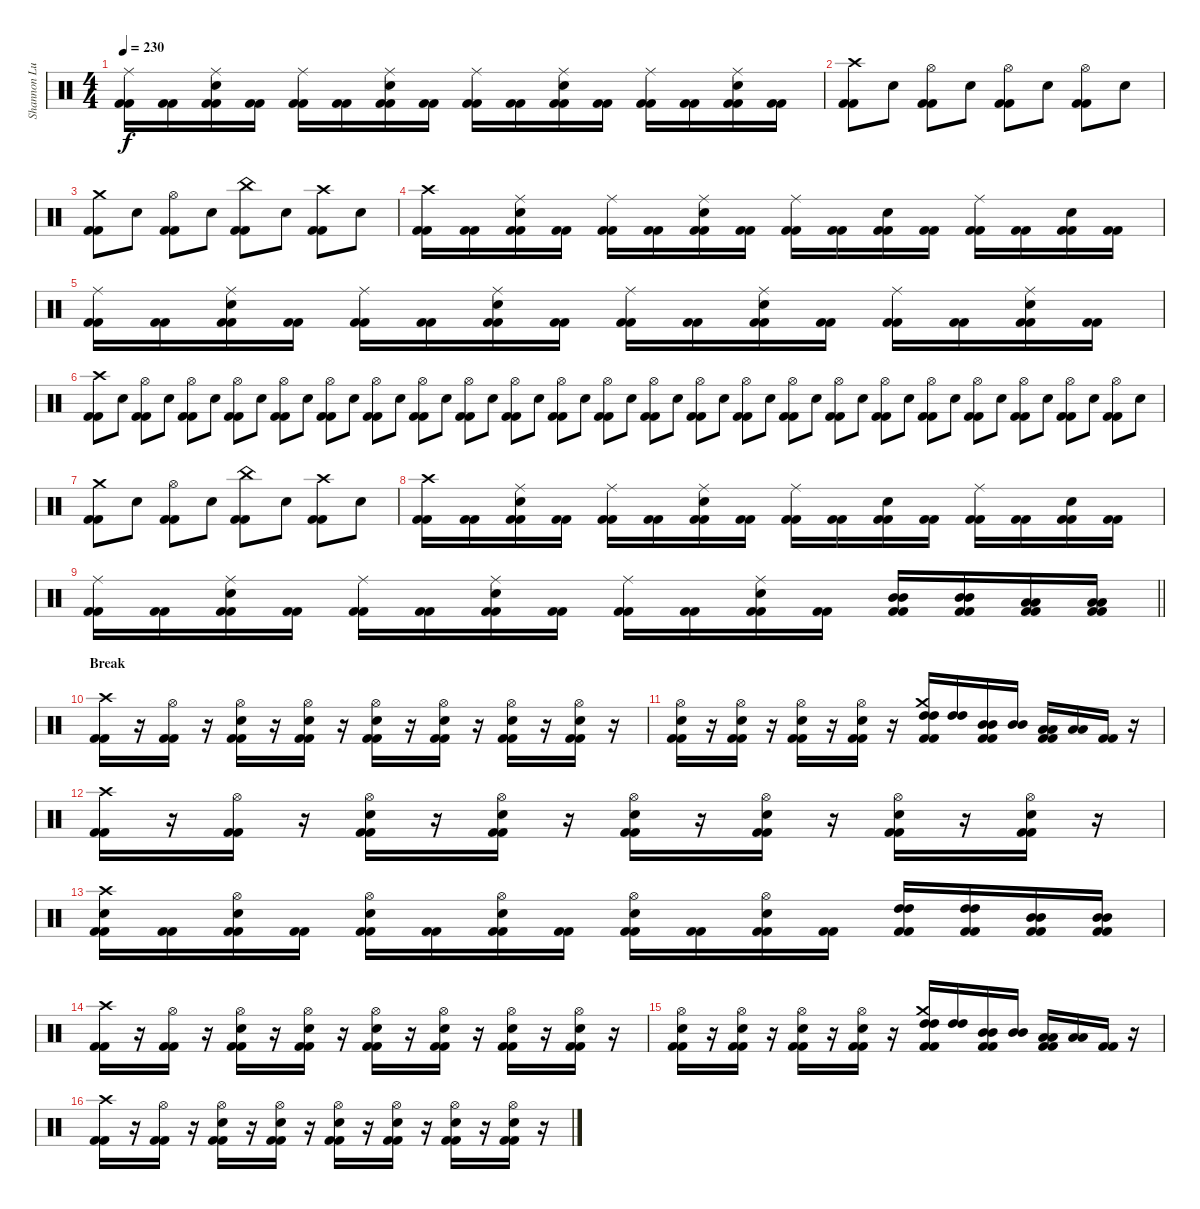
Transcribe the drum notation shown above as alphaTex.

\track ("Shannon Lucas" "Shannon Lu") {instrument percussion}
\staff {score}
\articulation defaults
\ts (4 4)
\tempo 230
\clef neutral
\ks c
("Ride (middle)" "Kick (hit) 2" "Kick (hit) 2").16{dy f} ("Kick (hit) 2" "Kick (hit) 2").16 ("Ride (middle)" "Electric Snare (hit)" "Kick (hit) 2" "Kick (hit) 2").16 ("Kick (hit) 2" "Kick (hit) 2").16 ("Ride (middle)" "Kick (hit) 2" "Kick (hit) 2").16 ("Kick (hit) 2" "Kick (hit) 2").16 ("Ride (middle)" "Electric Snare (hit)" "Kick (hit) 2" "Kick (hit) 2").16 ("Kick (hit) 2" "Kick (hit) 2").16 ("Ride (middle)" "Kick (hit) 2" "Kick (hit) 2").16 ("Kick (hit) 2" "Kick (hit) 2").16 ("Ride (middle)" "Electric Snare (hit)" "Kick (hit) 2" "Kick (hit) 2").16 ("Kick (hit) 2" "Kick (hit) 2").16 ("Ride (middle)" "Kick (hit) 2" "Kick (hit) 2").16 ("Kick (hit) 2" "Kick (hit) 2").16 ("Ride (middle)" "Electric Snare (hit)" "Kick (hit) 2" "Kick (hit) 2").16 ("Kick (hit) 2" "Kick (hit) 2").16 |
("Crash high (hit)" "Kick (hit) 2" "Kick (hit) 2").8 "Electric Snare (hit)".8 ("Hi-Hat (open)" "Kick (hit) 2" "Kick (hit) 2").8 "Electric Snare (hit)".8 ("Hi-Hat (open)" "Kick (hit) 2" "Kick (hit) 2").8 "Electric Snare (hit)".8 ("Hi-Hat (open)" "Kick (hit) 2" "Kick (hit) 2").8 "Electric Snare (hit)".8 |
("Crash medium (hit)" "Kick (hit) 2" "Kick (hit) 2").8 "Electric Snare (hit)".8 ("Hi-Hat (open)" "Kick (hit) 2" "Kick (hit) 2").8 "Electric Snare (hit)".8 ("China (hit)" "Kick (hit) 2" "Kick (hit) 2").8 "Electric Snare (hit)".8 ("Crash high (hit)" "Kick (hit) 2" "Kick (hit) 2").8 "Electric Snare (hit)".8 |
("Crash high (hit)" "Kick (hit) 2" "Kick (hit) 2").16 ("Kick (hit) 2" "Kick (hit) 2").16 ("Ride (middle)" "Electric Snare (hit)" "Kick (hit) 2" "Kick (hit) 2").16 ("Kick (hit) 2" "Kick (hit) 2").16 ("Ride (middle)" "Kick (hit) 2" "Kick (hit) 2").16 ("Kick (hit) 2" "Kick (hit) 2").16 ("Ride (middle)" "Electric Snare (hit)" "Kick (hit) 2" "Kick (hit) 2").16 ("Kick (hit) 2" "Kick (hit) 2").16 ("Ride (middle)" "Kick (hit) 2" "Kick (hit) 2").16 ("Kick (hit) 2" "Kick (hit) 2").16 ("Electric Snare (hit)" "Kick (hit) 2" "Kick (hit) 2").16 ("Kick (hit) 2" "Kick (hit) 2").16 ("Ride (middle)" "Kick (hit) 2" "Kick (hit) 2").16 ("Kick (hit) 2" "Kick (hit) 2").16 ("Electric Snare (hit)" "Kick (hit) 2" "Kick (hit) 2").16 ("Kick (hit) 2" "Kick (hit) 2").16 |
("Ride (middle)" "Kick (hit) 2" "Kick (hit) 2").16 ("Kick (hit) 2" "Kick (hit) 2").16 ("Ride (middle)" "Electric Snare (hit)" "Kick (hit) 2" "Kick (hit) 2").16 ("Kick (hit) 2" "Kick (hit) 2").16 ("Ride (middle)" "Kick (hit) 2" "Kick (hit) 2").16 ("Kick (hit) 2" "Kick (hit) 2").16 ("Ride (middle)" "Electric Snare (hit)" "Kick (hit) 2" "Kick (hit) 2").16 ("Kick (hit) 2" "Kick (hit) 2").16 ("Ride (middle)" "Kick (hit) 2" "Kick (hit) 2").16 ("Kick (hit) 2" "Kick (hit) 2").16 ("Ride (middle)" "Electric Snare (hit)" "Kick (hit) 2" "Kick (hit) 2").16 ("Kick (hit) 2" "Kick (hit) 2").16 ("Ride (middle)" "Kick (hit) 2" "Kick (hit) 2").16 ("Kick (hit) 2" "Kick (hit) 2").16 ("Ride (middle)" "Electric Snare (hit)" "Kick (hit) 2" "Kick (hit) 2").16 ("Kick (hit) 2" "Kick (hit) 2").16 |
("Crash high (hit)" "Kick (hit) 2" "Kick (hit) 2").8 "Electric Snare (hit)".8 ("Hi-Hat (open)" "Kick (hit) 2" "Kick (hit) 2").8 "Electric Snare (hit)".8 ("Hi-Hat (open)" "Kick (hit) 2" "Kick (hit) 2").8 "Electric Snare (hit)".8 ("Hi-Hat (open)" "Kick (hit) 2" "Kick (hit) 2").8 "Electric Snare (hit)".8 ("Hi-Hat (open)" "Kick (hit) 2" "Kick (hit) 2").8 "Electric Snare (hit)".8 ("Hi-Hat (open)" "Kick (hit) 2" "Kick (hit) 2").8 "Electric Snare (hit)".8 ("Hi-Hat (open)" "Kick (hit) 2" "Kick (hit) 2").8 "Electric Snare (hit)".8 ("Hi-Hat (open)" "Kick (hit) 2" "Kick (hit) 2").8 "Electric Snare (hit)".8 ("Hi-Hat (open)" "Kick (hit) 2" "Kick (hit) 2").8 "Electric Snare (hit)".8 ("Hi-Hat (open)" "Kick (hit) 2" "Kick (hit) 2").8 "Electric Snare (hit)".8 ("Hi-Hat (open)" "Kick (hit) 2" "Kick (hit) 2").8 "Electric Snare (hit)".8 ("Hi-Hat (open)" "Kick (hit) 2" "Kick (hit) 2").8 "Electric Snare (hit)".8 ("Hi-Hat (open)" "Kick (hit) 2" "Kick (hit) 2").8 "Electric Snare (hit)".8 ("Hi-Hat (open)" "Kick (hit) 2" "Kick (hit) 2").8 "Electric Snare (hit)".8 ("Hi-Hat (open)" "Kick (hit) 2" "Kick (hit) 2").8 "Electric Snare (hit)".8 ("Hi-Hat (open)" "Kick (hit) 2" "Kick (hit) 2").8 "Electric Snare (hit)".8 ("Hi-Hat (open)" "Kick (hit) 2" "Kick (hit) 2").8 "Electric Snare (hit)".8 ("Hi-Hat (open)" "Kick (hit) 2" "Kick (hit) 2").8 "Electric Snare (hit)".8 ("Hi-Hat (open)" "Kick (hit) 2" "Kick (hit) 2").8 "Electric Snare (hit)".8 ("Hi-Hat (open)" "Kick (hit) 2" "Kick (hit) 2").8 "Electric Snare (hit)".8 ("Hi-Hat (open)" "Kick (hit) 2" "Kick (hit) 2").8 "Electric Snare (hit)".8 ("Hi-Hat (open)" "Kick (hit) 2" "Kick (hit) 2").8 "Electric Snare (hit)".8 ("Hi-Hat (open)" "Kick (hit) 2" "Kick (hit) 2").8 "Electric Snare (hit)".8 |
("Crash medium (hit)" "Kick (hit) 2" "Kick (hit) 2").8 "Electric Snare (hit)".8 ("Hi-Hat (open)" "Kick (hit) 2" "Kick (hit) 2").8 "Electric Snare (hit)".8 ("China (hit)" "Kick (hit) 2" "Kick (hit) 2").8 "Electric Snare (hit)".8 ("Crash high (hit)" "Kick (hit) 2" "Kick (hit) 2").8 "Electric Snare (hit)".8 |
("Crash high (hit)" "Kick (hit) 2" "Kick (hit) 2").16 ("Kick (hit) 2" "Kick (hit) 2").16 ("Ride (middle)" "Electric Snare (hit)" "Kick (hit) 2" "Kick (hit) 2").16 ("Kick (hit) 2" "Kick (hit) 2").16 ("Ride (middle)" "Kick (hit) 2" "Kick (hit) 2").16 ("Kick (hit) 2" "Kick (hit) 2").16 ("Ride (middle)" "Electric Snare (hit)" "Kick (hit) 2" "Kick (hit) 2").16 ("Kick (hit) 2" "Kick (hit) 2").16 ("Ride (middle)" "Kick (hit) 2" "Kick (hit) 2").16 ("Kick (hit) 2" "Kick (hit) 2").16 ("Electric Snare (hit)" "Kick (hit) 2" "Kick (hit) 2").16 ("Kick (hit) 2" "Kick (hit) 2").16 ("Ride (middle)" "Kick (hit) 2" "Kick (hit) 2").16 ("Kick (hit) 2" "Kick (hit) 2").16 ("Electric Snare (hit)" "Kick (hit) 2" "Kick (hit) 2").16 ("Kick (hit) 2" "Kick (hit) 2").16 |
\barLineRight lightlight
("Ride (middle)" "Kick (hit) 2" "Kick (hit) 2").16 ("Kick (hit) 2" "Kick (hit) 2").16 ("Ride (middle)" "Electric Snare (hit)" "Kick (hit) 2" "Kick (hit) 2").16 ("Kick (hit) 2" "Kick (hit) 2").16 ("Ride (middle)" "Kick (hit) 2" "Kick (hit) 2").16 ("Kick (hit) 2" "Kick (hit) 2").16 ("Ride (middle)" "Electric Snare (hit)" "Kick (hit) 2" "Kick (hit) 2").16 ("Kick (hit) 2" "Kick (hit) 2").16 ("Ride (middle)" "Kick (hit) 2" "Kick (hit) 2").16 ("Kick (hit) 2" "Kick (hit) 2").16 ("Ride (middle)" "Electric Snare (hit)" "Kick (hit) 2" "Kick (hit) 2").16 ("Kick (hit) 2" "Kick (hit) 2").16 ("Mid Tom (hit)" "Mid Tom (hit)" "Kick (hit) 2" "Kick (hit) 2").16 ("Mid Tom (hit)" "Mid Tom (hit)" "Kick (hit) 2" "Kick (hit) 2").16 ("Low Tom (hit)" "Low Tom (hit)" "Kick (hit) 2" "Kick (hit) 2").16 ("Low Tom (hit)" "Low Tom (hit)" "Kick (hit) 2" "Kick (hit) 2").16 |
\section ("" "Break")
("Crash high (hit)" "Kick (hit) 2" "Kick (hit) 2").16 r.16 ("Hi-Hat (open)" "Kick (hit) 2" "Kick (hit) 2").16 r.16 ("Hi-Hat (open)" "Electric Snare (hit)" "Kick (hit) 2" "Kick (hit) 2").16 r.16 ("Hi-Hat (open)" "Electric Snare (hit)" "Kick (hit) 2" "Kick (hit) 2").16 r.16 ("Hi-Hat (open)" "Electric Snare (hit)" "Kick (hit) 2" "Kick (hit) 2").16 r.16 ("Hi-Hat (open)" "Electric Snare (hit)" "Kick (hit) 2" "Kick (hit) 2").16 r.16 ("Hi-Hat (open)" "Electric Snare (hit)" "Kick (hit) 2" "Kick (hit) 2").16 r.16 ("Hi-Hat (open)" "Electric Snare (hit)" "Kick (hit) 2" "Kick (hit) 2").16 r.16 |
("Hi-Hat (open)" "Electric Snare (hit)" "Kick (hit) 2" "Kick (hit) 2").16 r.16 ("Hi-Hat (open)" "Electric Snare (hit)" "Kick (hit) 2" "Kick (hit) 2").16 r.16 ("Hi-Hat (open)" "Electric Snare (hit)" "Kick (hit) 2" "Kick (hit) 2").16 r.16 ("Hi-Hat (open)" "Electric Snare (hit)" "Kick (hit) 2" "Kick (hit) 2").16 r.16 ("Crash medium (hit)" "High Tom (hit)" "High Tom (hit)" "Kick (hit) 2" "Kick (hit) 2").16 ("High Tom (hit)" "High Tom (hit)").16 ("Mid Tom (hit)" "Mid Tom (hit)" "Kick (hit) 2" "Kick (hit) 2").16 ("Mid Tom (hit)" "Mid Tom (hit)").16 ("Low Tom (hit)" "Low Tom (hit)" "Kick (hit) 2" "Kick (hit) 2").16 ("Low Tom (hit)" "Low Tom (hit)").16 ("Kick (hit) 2" "Kick (hit) 2").16 r.16 |
("Crash high (hit)" "Kick (hit) 2" "Kick (hit) 2").16 r.16 ("Hi-Hat (open)" "Kick (hit) 2" "Kick (hit) 2").16 r.16 ("Hi-Hat (open)" "Electric Snare (hit)" "Kick (hit) 2" "Kick (hit) 2").16 r.16 ("Hi-Hat (open)" "Electric Snare (hit)" "Kick (hit) 2" "Kick (hit) 2").16 r.16 ("Hi-Hat (open)" "Electric Snare (hit)" "Kick (hit) 2" "Kick (hit) 2").16 r.16 ("Hi-Hat (open)" "Electric Snare (hit)" "Kick (hit) 2" "Kick (hit) 2").16 r.16 ("Hi-Hat (open)" "Electric Snare (hit)" "Kick (hit) 2" "Kick (hit) 2").16 r.16 ("Hi-Hat (open)" "Electric Snare (hit)" "Kick (hit) 2" "Kick (hit) 2").16 r.16 |
("Crash high (hit)" "Electric Snare (hit)" "Kick (hit) 2" "Kick (hit) 2").16 ("Kick (hit) 2" "Kick (hit) 2").16 ("Hi-Hat (open)" "Electric Snare (hit)" "Kick (hit) 2" "Kick (hit) 2").16 ("Kick (hit) 2" "Kick (hit) 2").16 ("Hi-Hat (open)" "Electric Snare (hit)" "Kick (hit) 2" "Kick (hit) 2").16 ("Kick (hit) 2" "Kick (hit) 2").16 ("Hi-Hat (open)" "Electric Snare (hit)" "Kick (hit) 2" "Kick (hit) 2").16 ("Kick (hit) 2" "Kick (hit) 2").16 ("Hi-Hat (open)" "Electric Snare (hit)" "Kick (hit) 2" "Kick (hit) 2").16 ("Kick (hit) 2" "Kick (hit) 2").16 ("Hi-Hat (open)" "Electric Snare (hit)" "Kick (hit) 2" "Kick (hit) 2").16 ("Kick (hit) 2" "Kick (hit) 2").16 ("High Tom (hit)" "High Tom (hit)" "Kick (hit) 2" "Kick (hit) 2").16 ("High Tom (hit)" "High Tom (hit)" "Kick (hit) 2" "Kick (hit) 2").16 ("Mid Tom (hit)" "Mid Tom (hit)" "Kick (hit) 2" "Kick (hit) 2").16 ("Mid Tom (hit)" "Mid Tom (hit)" "Kick (hit) 2" "Kick (hit) 2").16 |
("Crash high (hit)" "Kick (hit) 2" "Kick (hit) 2").16 r.16 ("Hi-Hat (open)" "Kick (hit) 2" "Kick (hit) 2").16 r.16 ("Hi-Hat (open)" "Electric Snare (hit)" "Kick (hit) 2" "Kick (hit) 2").16 r.16 ("Hi-Hat (open)" "Electric Snare (hit)" "Kick (hit) 2" "Kick (hit) 2").16 r.16 ("Hi-Hat (open)" "Electric Snare (hit)" "Kick (hit) 2" "Kick (hit) 2").16 r.16 ("Hi-Hat (open)" "Electric Snare (hit)" "Kick (hit) 2" "Kick (hit) 2").16 r.16 ("Hi-Hat (open)" "Electric Snare (hit)" "Kick (hit) 2" "Kick (hit) 2").16 r.16 ("Hi-Hat (open)" "Electric Snare (hit)" "Kick (hit) 2" "Kick (hit) 2").16 r.16 |
("Hi-Hat (open)" "Electric Snare (hit)" "Kick (hit) 2" "Kick (hit) 2").16 r.16 ("Hi-Hat (open)" "Electric Snare (hit)" "Kick (hit) 2" "Kick (hit) 2").16 r.16 ("Hi-Hat (open)" "Electric Snare (hit)" "Kick (hit) 2" "Kick (hit) 2").16 r.16 ("Hi-Hat (open)" "Electric Snare (hit)" "Kick (hit) 2" "Kick (hit) 2").16 r.16 ("Crash medium (hit)" "High Tom (hit)" "High Tom (hit)" "Kick (hit) 2" "Kick (hit) 2").16 ("High Tom (hit)" "High Tom (hit)").16 ("Mid Tom (hit)" "Mid Tom (hit)" "Kick (hit) 2" "Kick (hit) 2").16 ("Mid Tom (hit)" "Mid Tom (hit)").16 ("Low Tom (hit)" "Low Tom (hit)" "Kick (hit) 2" "Kick (hit) 2").16 ("Low Tom (hit)" "Low Tom (hit)").16 ("Kick (hit) 2" "Kick (hit) 2").16 r.16 |
("Crash high (hit)" "Kick (hit) 2" "Kick (hit) 2").16 r.16 ("Hi-Hat (open)" "Kick (hit) 2" "Kick (hit) 2").16 r.16 ("Hi-Hat (open)" "Electric Snare (hit)" "Kick (hit) 2" "Kick (hit) 2").16 r.16 ("Hi-Hat (open)" "Electric Snare (hit)" "Kick (hit) 2" "Kick (hit) 2").16 r.16 ("Hi-Hat (open)" "Electric Snare (hit)" "Kick (hit) 2" "Kick (hit) 2").16 r.16 ("Hi-Hat (open)" "Electric Snare (hit)" "Kick (hit) 2" "Kick (hit) 2").16 r.16 ("Hi-Hat (open)" "Electric Snare (hit)" "Kick (hit) 2" "Kick (hit) 2").16 r.16 ("Hi-Hat (open)" "Electric Snare (hit)" "Kick (hit) 2" "Kick (hit) 2").16 r.16
